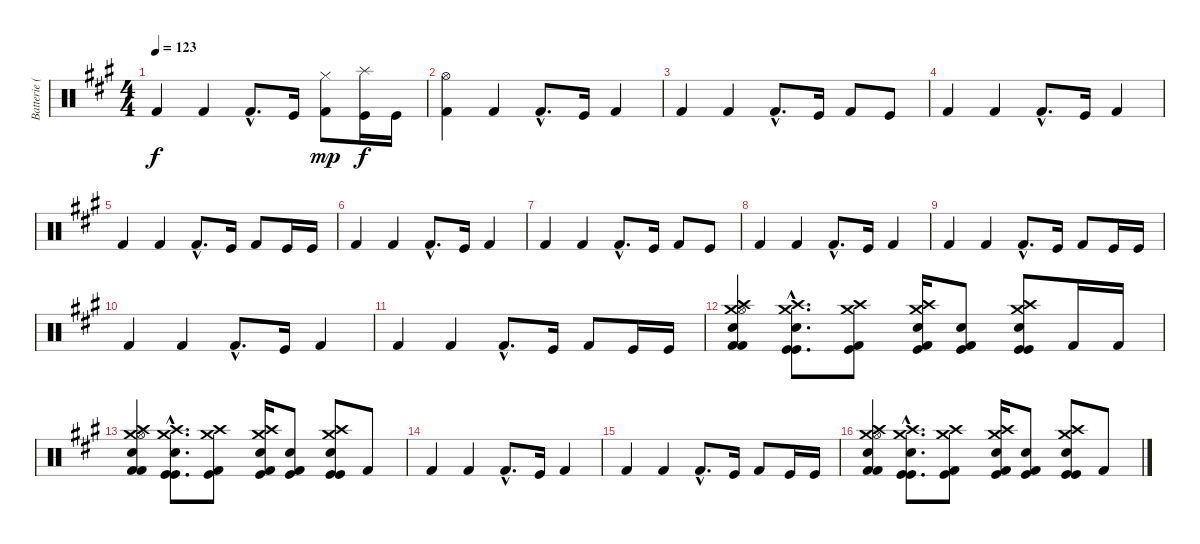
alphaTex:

\track ("Batterie (Dominic Howard)" "Batterie (") {instrument percussion}
\staff {score}
\articulation defaults
\ts (4 4)
\tempo 123
\clef neutral
\ks a "Kick (hit) 2".4{dy f} "Kick (hit) 2".4 "Kick (hit) 2"{hac}.8{d} "Kick (hit)".16
("Hi-Hat (closed)" "Kick (hit) 2").8{dy mp} ("Splash (hit)" "Kick (hit)").16{dy f} "Kick (hit)".16 |
("Hi-Hat (open)" "Kick (hit) 2").4 "Kick (hit) 2".4 "Kick (hit) 2"{hac}.8{d} "Kick (hit)".16 "Kick (hit) 2".4 |
"Kick (hit) 2".4 "Kick (hit) 2".4 "Kick (hit) 2"{hac}.8{d} "Kick (hit)".16 "Kick (hit) 2".8 "Kick (hit)".8 |
"Kick (hit) 2".4 "Kick (hit) 2".4 "Kick (hit) 2"{hac}.8{d} "Kick (hit)".16 "Kick (hit) 2".4 |
"Kick (hit) 2".4 "Kick (hit) 2".4 "Kick (hit) 2"{hac}.8{d} "Kick (hit)".16 "Kick (hit) 2".8 "Kick (hit)".16 "Kick (hit)".16 |
"Kick (hit) 2".4 "Kick (hit) 2".4 "Kick (hit) 2"{hac}.8{d} "Kick (hit)".16 "Kick (hit) 2".4 |
"Kick (hit) 2".4 "Kick (hit) 2".4 "Kick (hit) 2"{hac}.8{d} "Kick (hit)".16 "Kick (hit) 2".8 "Kick (hit)".8 |
"Kick (hit) 2".4 "Kick (hit) 2".4 "Kick (hit) 2"{hac}.8{d} "Kick (hit)".16 "Kick (hit) 2".4 |
"Kick (hit) 2".4 "Kick (hit) 2".4 "Kick (hit) 2"{hac}.8{d} "Kick (hit)".16 "Kick (hit) 2".8 "Kick (hit)".16 "Kick (hit)".16 |
"Kick (hit) 2".4 "Kick (hit) 2".4 "Kick (hit) 2"{hac}.8{d} "Kick (hit)".16 "Kick (hit) 2".4 |
"Kick (hit) 2".4 "Kick (hit) 2".4 "Kick (hit) 2"{hac}.8{d} "Kick (hit)".16 "Kick (hit) 2".8 "Kick (hit)".16 "Kick (hit)".16 |
("Crash medium (hit)" "Crash high (hit)" "Hi-Hat (open)" "Snare (hit) 2" "Kick (hit) 2" "Kick (hit) 2").4 ("Crash medium (hit)"{hac} "Crash high (hit)"{hac} "Electric Snare (hit)"{hac} "Kick (hit)"{hac} "Kick (hit)"{hac}).8{d} ("Crash medium (hit)" "Crash high (hit)" "Kick (hit)" "Kick (hit) 2").8 ("Crash medium (hit)" "Crash high (hit)" "Snare (hit) 2" "Kick (hit)" "Kick (hit) 2").16 ("Snare (hit) 2" "Kick (hit) 2" "Kick (hit)").8 ("Crash medium (hit)" "Crash high (hit)" "Electric Snare (hit)" "Kick (hit)" "Kick (hit)").8 "Kick (hit) 2".16 "Kick (hit) 2".16 |
("Crash medium (hit)" "Crash high (hit)" "Hi-Hat (open)" "Snare (hit) 2" "Kick (hit) 2" "Kick (hit) 2").4 ("Crash medium (hit)"{hac} "Crash high (hit)"{hac} "Electric Snare (hit)"{hac} "Kick (hit)"{hac} "Kick (hit)"{hac}).8{d} ("Crash medium (hit)" "Crash high (hit)" "Kick (hit)" "Kick (hit) 2").8 ("Crash medium (hit)" "Crash high (hit)" "Snare (hit) 2" "Kick (hit)" "Kick (hit) 2").16 ("Snare (hit) 2" "Kick (hit) 2" "Kick (hit)").8 ("Crash medium (hit)" "Crash high (hit)" "Electric Snare (hit)" "Kick (hit)" "Kick (hit)").8 "Kick (hit) 2".8 |
"Kick (hit) 2".4 "Kick (hit) 2".4 "Kick (hit) 2"{hac}.8{d} "Kick (hit)".16 "Kick (hit) 2".4 |
"Kick (hit) 2".4 "Kick (hit) 2".4 "Kick (hit) 2"{hac}.8{d} "Kick (hit)".16 "Kick (hit) 2".8 "Kick (hit)".16 "Kick (hit)".16 |
("Crash medium (hit)" "Crash high (hit)" "Hi-Hat (open)" "Snare (hit) 2" "Kick (hit) 2" "Kick (hit) 2").4 ("Crash medium (hit)"{hac} "Crash high (hit)"{hac} "Electric Snare (hit)"{hac} "Kick (hit)"{hac} "Kick (hit)"{hac}).8{d} ("Crash medium (hit)" "Crash high (hit)" "Kick (hit)" "Kick (hit) 2").8 ("Crash medium (hit)" "Crash high (hit)" "Snare (hit) 2" "Kick (hit)" "Kick (hit) 2").16 ("Snare (hit) 2" "Kick (hit) 2" "Kick (hit)").8 ("Crash medium (hit)" "Crash high (hit)" "Electric Snare (hit)" "Kick (hit)" "Kick (hit)").8 "Kick (hit) 2".8
